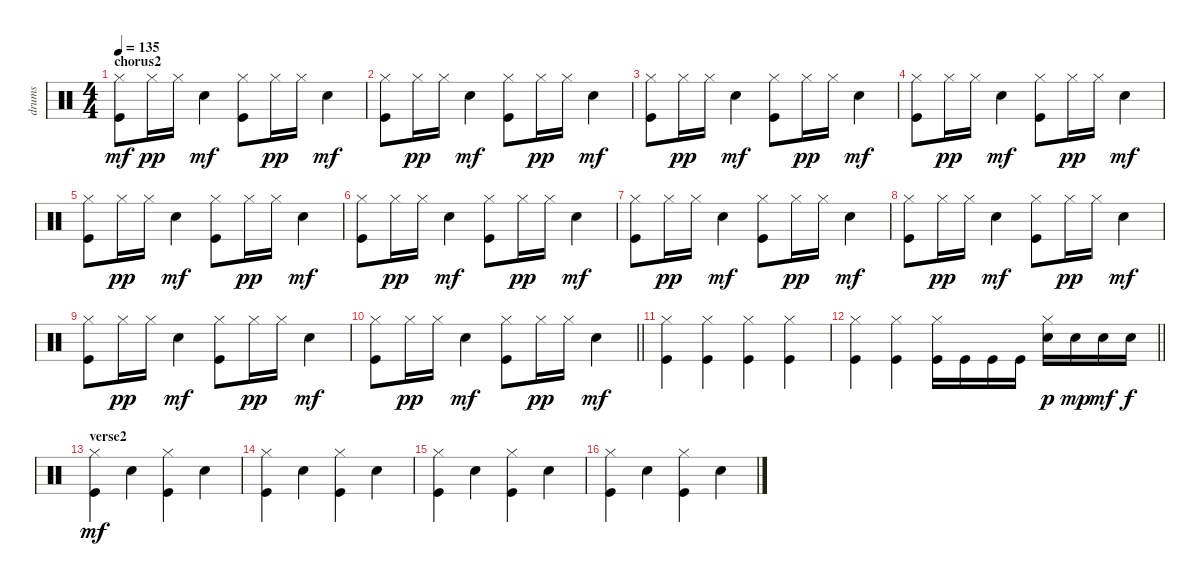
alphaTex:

\track ("drums" "drums") {instrument percussion}
\staff {score}
\articulation defaults
\ts (4 4)
\section ("" "chorus2")
\tempo 135
\clef neutral
\ks c
("Hi-Hat (closed)" "Kick (hit)").8{dy mf} "Hi-Hat (closed)".16{dy pp} "Hi-Hat (closed)".16 "Snare (hit) 2".4{dy mf} ("Hi-Hat (closed)" "Kick (hit)").8 "Hi-Hat (closed)".16{dy pp} "Hi-Hat (closed)".16 "Snare (hit) 2".4{dy mf} |
("Hi-Hat (closed)" "Kick (hit)").8 "Hi-Hat (closed)".16{dy pp} "Hi-Hat (closed)".16 "Snare (hit) 2".4{dy mf} ("Hi-Hat (closed)" "Kick (hit)").8 "Hi-Hat (closed)".16{dy pp} "Hi-Hat (closed)".16 "Snare (hit) 2".4{dy mf} |
("Hi-Hat (closed)" "Kick (hit)").8 "Hi-Hat (closed)".16{dy pp} "Hi-Hat (closed)".16 "Snare (hit) 2".4{dy mf} ("Hi-Hat (closed)" "Kick (hit)").8 "Hi-Hat (closed)".16{dy pp} "Hi-Hat (closed)".16 "Snare (hit) 2".4{dy mf} |
("Hi-Hat (closed)" "Kick (hit)").8 "Hi-Hat (closed)".16{dy pp} "Hi-Hat (closed)".16 "Snare (hit) 2".4{dy mf} ("Hi-Hat (closed)" "Kick (hit)").8 "Hi-Hat (closed)".16{dy pp} "Hi-Hat (closed)".16 "Snare (hit) 2".4{dy mf} |
("Hi-Hat (closed)" "Kick (hit)").8 "Hi-Hat (closed)".16{dy pp} "Hi-Hat (closed)".16 "Snare (hit) 2".4{dy mf} ("Hi-Hat (closed)" "Kick (hit)").8 "Hi-Hat (closed)".16{dy pp} "Hi-Hat (closed)".16 "Snare (hit) 2".4{dy mf} |
("Hi-Hat (closed)" "Kick (hit)").8 "Hi-Hat (closed)".16{dy pp} "Hi-Hat (closed)".16 "Snare (hit) 2".4{dy mf} ("Hi-Hat (closed)" "Kick (hit)").8 "Hi-Hat (closed)".16{dy pp} "Hi-Hat (closed)".16 "Snare (hit) 2".4{dy mf} |
("Hi-Hat (closed)" "Kick (hit)").8 "Hi-Hat (closed)".16{dy pp} "Hi-Hat (closed)".16 "Snare (hit) 2".4{dy mf} ("Hi-Hat (closed)" "Kick (hit)").8 "Hi-Hat (closed)".16{dy pp} "Hi-Hat (closed)".16 "Snare (hit) 2".4{dy mf} |
("Hi-Hat (closed)" "Kick (hit)").8 "Hi-Hat (closed)".16{dy pp} "Hi-Hat (closed)".16 "Snare (hit) 2".4{dy mf} ("Hi-Hat (closed)" "Kick (hit)").8 "Hi-Hat (closed)".16{dy pp} "Hi-Hat (closed)".16 "Snare (hit) 2".4{dy mf} |
("Hi-Hat (closed)" "Kick (hit)").8 "Hi-Hat (closed)".16{dy pp} "Hi-Hat (closed)".16 "Snare (hit) 2".4{dy mf} ("Hi-Hat (closed)" "Kick (hit)").8 "Hi-Hat (closed)".16{dy pp} "Hi-Hat (closed)".16 "Snare (hit) 2".4{dy mf} |
\barLineRight lightlight
("Hi-Hat (closed)" "Kick (hit)").8 "Hi-Hat (closed)".16{dy pp} "Hi-Hat (closed)".16 "Snare (hit) 2".4{dy mf} ("Hi-Hat (closed)" "Kick (hit)").8 "Hi-Hat (closed)".16{dy pp} "Hi-Hat (closed)".16 "Snare (hit) 2".4{dy mf} |
("Hi-Hat (closed)" "Kick (hit)").4 ("Hi-Hat (closed)" "Kick (hit)").4 ("Hi-Hat (closed)" "Kick (hit)").4 ("Hi-Hat (closed)" "Kick (hit)").4 |
\barLineRight lightlight
("Hi-Hat (closed)" "Kick (hit)").4 ("Hi-Hat (closed)" "Kick (hit)").4 ("Hi-Hat (closed)" "Kick (hit)").16 "Kick (hit)".16 "Kick (hit)".16 "Kick (hit)".16 ("Hi-Hat (closed)" "Snare (hit) 2").16{dy p} "Snare (hit) 2".16{dy mp} "Snare (hit) 2".16{dy mf} "Snare (hit) 2".16{dy f} |
\section ("" "verse2")
("Hi-Hat (closed)" "Kick (hit)").4{dy mf} "Snare (hit) 2".4 ("Hi-Hat (closed)" "Kick (hit)").4 "Snare (hit) 2".4 |
("Hi-Hat (closed)" "Kick (hit)").4 "Snare (hit) 2".4 ("Hi-Hat (closed)" "Kick (hit)").4 "Snare (hit) 2".4 |
("Hi-Hat (closed)" "Kick (hit)").4 "Snare (hit) 2".4 ("Hi-Hat (closed)" "Kick (hit)").4 "Snare (hit) 2".4 |
("Hi-Hat (closed)" "Kick (hit)").4 "Snare (hit) 2".4 ("Hi-Hat (closed)" "Kick (hit)").4 "Snare (hit) 2".4
